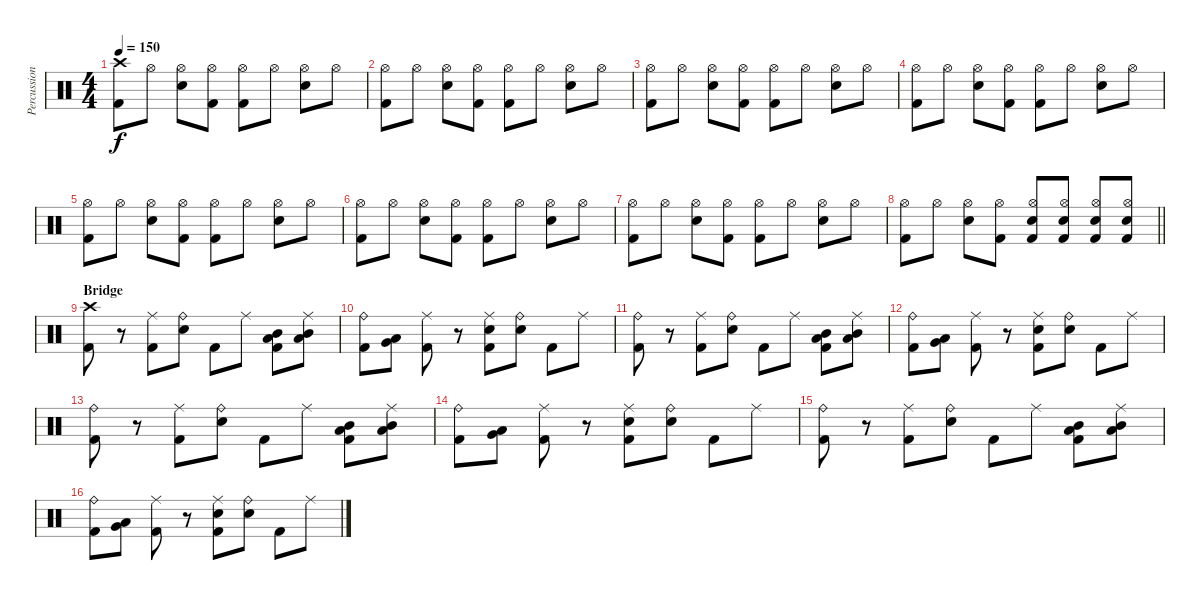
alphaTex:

\track ("Percussion" "Percussion") {instrument percussion}
\staff {score}
\articulation defaults
\ts (4 4)
\tempo 150
\clef neutral
\ks c
("Crash high (hit)" "Kick (hit) 2").8{dy f} "Hi-Hat (open)".8 ("Hi-Hat (open)" "Electric Snare (hit)").8 ("Hi-Hat (open)" "Kick (hit) 2").8 ("Hi-Hat (open)" "Kick (hit) 2").8 "Hi-Hat (open)".8 ("Hi-Hat (open)" "Electric Snare (hit)").8 "Hi-Hat (open)".8 |
("Hi-Hat (open)" "Kick (hit) 2").8 "Hi-Hat (open)".8 ("Hi-Hat (open)" "Electric Snare (hit)").8 ("Hi-Hat (open)" "Kick (hit) 2").8 ("Hi-Hat (open)" "Kick (hit) 2").8 "Hi-Hat (open)".8 ("Hi-Hat (open)" "Electric Snare (hit)").8 "Hi-Hat (open)".8 |
("Hi-Hat (open)" "Kick (hit) 2").8 "Hi-Hat (open)".8 ("Hi-Hat (open)" "Electric Snare (hit)").8 ("Hi-Hat (open)" "Kick (hit) 2").8 ("Hi-Hat (open)" "Kick (hit) 2").8 "Hi-Hat (open)".8 ("Hi-Hat (open)" "Electric Snare (hit)").8 "Hi-Hat (open)".8 |
("Hi-Hat (open)" "Kick (hit) 2").8 "Hi-Hat (open)".8 ("Hi-Hat (open)" "Electric Snare (hit)").8 ("Hi-Hat (open)" "Kick (hit) 2").8 ("Hi-Hat (open)" "Kick (hit) 2").8 "Hi-Hat (open)".8 ("Hi-Hat (open)" "Electric Snare (hit)").8 "Hi-Hat (open)".8 |
("Hi-Hat (open)" "Kick (hit) 2").8 "Hi-Hat (open)".8 ("Hi-Hat (open)" "Electric Snare (hit)").8 ("Hi-Hat (open)" "Kick (hit) 2").8 ("Hi-Hat (open)" "Kick (hit) 2").8 "Hi-Hat (open)".8 ("Hi-Hat (open)" "Electric Snare (hit)").8 "Hi-Hat (open)".8 |
("Hi-Hat (open)" "Kick (hit) 2").8 "Hi-Hat (open)".8 ("Hi-Hat (open)" "Electric Snare (hit)").8 ("Hi-Hat (open)" "Kick (hit) 2").8 ("Hi-Hat (open)" "Kick (hit) 2").8 "Hi-Hat (open)".8 ("Hi-Hat (open)" "Electric Snare (hit)").8 "Hi-Hat (open)".8 |
("Hi-Hat (open)" "Kick (hit) 2").8 "Hi-Hat (open)".8 ("Hi-Hat (open)" "Electric Snare (hit)").8 ("Hi-Hat (open)" "Kick (hit) 2").8 ("Hi-Hat (open)" "Kick (hit) 2").8 "Hi-Hat (open)".8 ("Hi-Hat (open)" "Electric Snare (hit)").8 "Hi-Hat (open)".8 |
\barLineRight lightlight
("Hi-Hat (open)" "Kick (hit) 2").8 "Hi-Hat (open)".8 ("Hi-Hat (open)" "Electric Snare (hit)").8 ("Hi-Hat (open)" "Kick (hit) 2").8 ("Hi-Hat (open)" "Electric Snare (hit)" "Kick (hit) 2").8 ("Hi-Hat (open)" "Electric Snare (hit)" "Kick (hit) 2").8 ("Hi-Hat (open)" "Electric Snare (hit)" "Kick (hit) 2").8 ("Hi-Hat (open)" "Electric Snare (hit)" "Kick (hit) 2").8 |
\section ("" "Bridge")
("Crash high (hit)" "Kick (hit) 2").8 r.8 ("Ride (middle)" "Kick (hit) 2").8 ("Ride (bell)" "Electric Snare (hit)").8 "Kick (hit) 2".8 "Ride (middle)".8 ("Mid Tom (hit)" "Low Tom (hit)" "Kick (hit) 2").8 ("Ride (middle)" "Mid Tom (hit)" "Low Tom (hit)").8 |
("Ride (bell)" "Kick (hit) 2").8 ("Very Low Tom (hit)" "Low Floor Tom (hit)").8 ("Ride (middle)" "Kick (hit) 2").8 r.8 ("Ride (middle)" "Electric Snare (hit)" "Kick (hit) 2").8 ("Ride (bell)" "Electric Snare (hit)").8 "Kick (hit) 2".8 "Ride (middle)".8 |
("Ride (bell)" "Kick (hit) 2").8 r.8 ("Ride (middle)" "Kick (hit) 2").8 ("Ride (bell)" "Electric Snare (hit)").8 "Kick (hit) 2".8 "Ride (middle)".8 ("Mid Tom (hit)" "Low Tom (hit)" "Kick (hit) 2").8 ("Ride (middle)" "Mid Tom (hit)" "Low Tom (hit)").8 |
("Ride (bell)" "Kick (hit) 2").8 ("Very Low Tom (hit)" "Low Floor Tom (hit)").8 ("Ride (middle)" "Kick (hit) 2").8 r.8 ("Ride (middle)" "Electric Snare (hit)" "Kick (hit) 2").8 ("Ride (bell)" "Electric Snare (hit)").8 "Kick (hit) 2".8 "Ride (middle)".8 |
("Ride (bell)" "Kick (hit) 2").8 r.8 ("Ride (middle)" "Kick (hit) 2").8 ("Ride (bell)" "Electric Snare (hit)").8 "Kick (hit) 2".8 "Ride (middle)".8 ("Mid Tom (hit)" "Low Tom (hit)" "Kick (hit) 2").8 ("Ride (middle)" "Mid Tom (hit)" "Low Tom (hit)").8 |
("Ride (bell)" "Kick (hit) 2").8 ("Very Low Tom (hit)" "Low Floor Tom (hit)").8 ("Ride (middle)" "Kick (hit) 2").8 r.8 ("Ride (middle)" "Electric Snare (hit)" "Kick (hit) 2").8 ("Ride (bell)" "Electric Snare (hit)").8 "Kick (hit) 2".8 "Ride (middle)".8 |
("Ride (bell)" "Kick (hit) 2").8 r.8 ("Ride (middle)" "Kick (hit) 2").8 ("Ride (bell)" "Electric Snare (hit)").8 "Kick (hit) 2".8 "Ride (middle)".8 ("Mid Tom (hit)" "Low Tom (hit)" "Kick (hit) 2").8 ("Ride (middle)" "Mid Tom (hit)" "Low Tom (hit)").8 |
("Ride (bell)" "Kick (hit) 2").8 ("Very Low Tom (hit)" "Low Floor Tom (hit)").8 ("Ride (middle)" "Kick (hit) 2").8 r.8 ("Ride (middle)" "Electric Snare (hit)" "Kick (hit) 2").8 ("Ride (bell)" "Electric Snare (hit)").8 "Kick (hit) 2".8 "Ride (middle)".8
